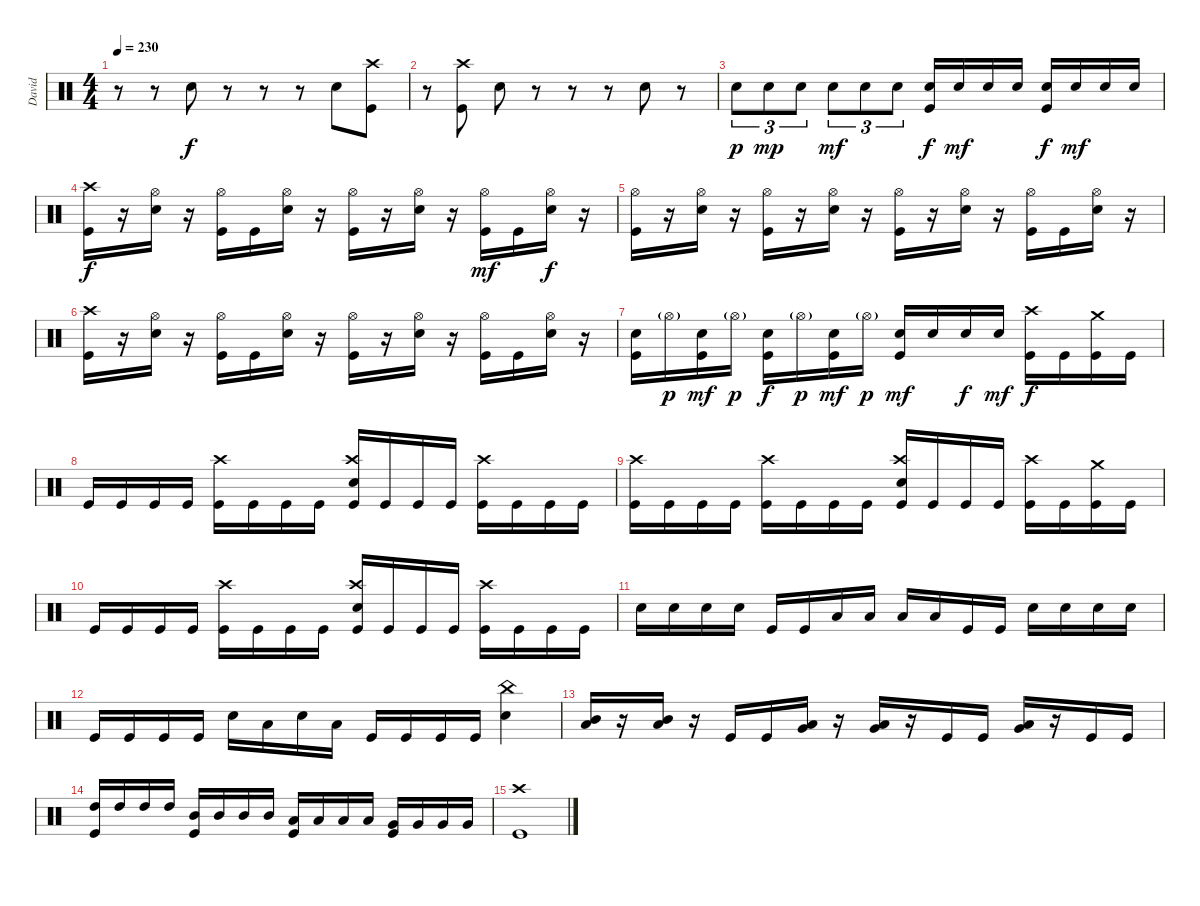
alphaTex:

\track ("David" "David") {instrument percussion}
\staff {score}
\articulation defaults
\ts (4 4)
\tempo 230
\clef neutral
\ks c
r.8{dy f} r.8 "Electric Snare (hit)".8 r.8 r.8 r.8 "Electric Snare (hit)".8 ("Crash high (hit)" "Kick (hit)").8 |
r.8 ("Crash high (hit)" "Kick (hit)").8 "Electric Snare (hit)".8 r.8 r.8 r.8 "Electric Snare (hit)".8 r.8 |
"Electric Snare (hit)".8{tu (3 2) dy p} "Electric Snare (hit)".8{tu (3 2) dy mp} "Electric Snare (hit)".8{tu (3 2)} "Electric Snare (hit)".8{tu (3 2) dy mf} "Electric Snare (hit)".8{tu (3 2)} "Electric Snare (hit)".8{tu (3 2)} ("Electric Snare (hit)" "Kick (hit)").16{dy f} "Electric Snare (hit)".16{dy mf} "Electric Snare (hit)".16 "Electric Snare (hit)".16 ("Electric Snare (hit)" "Kick (hit)").16{dy f} "Electric Snare (hit)".16{dy mf} "Electric Snare (hit)".16 "Electric Snare (hit)".16 |
("Crash high (hit)" "Kick (hit)").16{dy f} r.16 ("Hi-Hat (open)" "Electric Snare (hit)").16 r.16 ("Hi-Hat (open)" "Kick (hit)").16 "Kick (hit)".16 ("Hi-Hat (open)" "Electric Snare (hit)").16 r.16 ("Hi-Hat (open)" "Kick (hit)").16 r.16 ("Hi-Hat (open)" "Electric Snare (hit)").16 r.16 ("Hi-Hat (open)" "Kick (hit)").16{dy mf} "Kick (hit)".16 ("Hi-Hat (open)" "Electric Snare (hit)").16{dy f} r.16 |
("Hi-Hat (open)" "Kick (hit)").16 r.16 ("Hi-Hat (open)" "Electric Snare (hit)").16 r.16 ("Hi-Hat (open)" "Kick (hit)").16 r.16 ("Hi-Hat (open)" "Electric Snare (hit)").16 r.16 ("Hi-Hat (open)" "Kick (hit)").16 r.16 ("Hi-Hat (open)" "Electric Snare (hit)").16 r.16 ("Hi-Hat (open)" "Kick (hit)").16 "Kick (hit)".16 ("Hi-Hat (open)" "Electric Snare (hit)").16 r.16 |
("Crash high (hit)" "Kick (hit)").16 r.16 ("Hi-Hat (open)" "Electric Snare (hit)").16 r.16 ("Hi-Hat (open)" "Kick (hit)").16 "Kick (hit)".16 ("Hi-Hat (open)" "Electric Snare (hit)").16 r.16 ("Hi-Hat (open)" "Kick (hit)").16 r.16 ("Hi-Hat (open)" "Electric Snare (hit)").16 r.16 ("Hi-Hat (open)" "Kick (hit)").16 "Kick (hit)".16 ("Hi-Hat (open)" "Electric Snare (hit)").16 r.16 |
("Electric Snare (hit)" "Kick (hit)").16 "Hi-Hat (open)"{g}.16{dy p} ("Electric Snare (hit)" "Kick (hit)").16{dy mf} "Hi-Hat (open)"{g}.16{dy p} ("Electric Snare (hit)" "Kick (hit)").16{dy f} "Hi-Hat (open)"{g}.16{dy p} ("Electric Snare (hit)" "Kick (hit)").16{dy mf} "Hi-Hat (open)"{g}.16{dy p} ("Electric Snare (hit)" "Kick (hit)").16{dy mf} "Electric Snare (hit)".16 "Electric Snare (hit)".16{dy f} "Electric Snare (hit)".16{dy mf} ("Crash high (hit)" "Kick (hit)").16{dy f} "Kick (hit)".16 ("Crash medium (hit)" "Kick (hit)").16 "Kick (hit)".16 |
"Kick (hit)".16 "Kick (hit)".16 "Kick (hit)".16 "Kick (hit)".16 ("Crash high (hit)" "Kick (hit)").16 "Kick (hit)".16 "Kick (hit)".16 "Kick (hit)".16 ("Crash high (hit)" "Electric Snare (hit)" "Kick (hit)").16 "Kick (hit)".16 "Kick (hit)".16 "Kick (hit)".16 ("Crash high (hit)" "Kick (hit)").16 "Kick (hit)".16 "Kick (hit)".16 "Kick (hit)".16 |
("Crash high (hit)" "Kick (hit)").16 "Kick (hit)".16 "Kick (hit)".16 "Kick (hit)".16 ("Crash high (hit)" "Kick (hit)").16 "Kick (hit)".16 "Kick (hit)".16 "Kick (hit)".16 ("Crash high (hit)" "Electric Snare (hit)" "Kick (hit)").16 "Kick (hit)".16 "Kick (hit)".16 "Kick (hit)".16 ("Crash high (hit)" "Kick (hit)").16 "Kick (hit)".16 ("Crash medium (hit)" "Kick (hit)").16 "Kick (hit)".16 |
"Kick (hit)".16 "Kick (hit)".16 "Kick (hit)".16 "Kick (hit)".16 ("Crash high (hit)" "Kick (hit)").16 "Kick (hit)".16 "Kick (hit)".16 "Kick (hit)".16 ("Crash high (hit)" "Electric Snare (hit)" "Kick (hit)").16 "Kick (hit)".16 "Kick (hit)".16 "Kick (hit)".16 ("Crash high (hit)" "Kick (hit)").16 "Kick (hit)".16 "Kick (hit)".16 "Kick (hit)".16 |
"Electric Snare (hit)".16 "Electric Snare (hit)".16 "Electric Snare (hit)".16 "Electric Snare (hit)".16 "Kick (hit)".16 "Kick (hit)".16 "Low Tom (hit)".16 "Low Tom (hit)".16 "Low Tom (hit)".16 "Low Tom (hit)".16 "Kick (hit)".16 "Kick (hit)".16 "Electric Snare (hit)".16 "Electric Snare (hit)".16 "Electric Snare (hit)".16 "Electric Snare (hit)".16 |
"Kick (hit)".16 "Kick (hit)".16 "Kick (hit)".16 "Kick (hit)".16 "Electric Snare (hit)".16 "Low Tom (hit)".16 "Electric Snare (hit)".16 "Low Tom (hit)".16 "Kick (hit)".16 "Kick (hit)".16 "Kick (hit)".16 "Kick (hit)".16 ("China (hit)" "Electric Snare (hit)").4 |
("Mid Tom (hit)" "Low Tom (hit)").16 r.16 ("Mid Tom (hit)" "Low Tom (hit)").16 r.16 "Kick (hit)".16 "Kick (hit)".16 ("Low Tom (hit)" "Very Low Tom (hit)").16 r.16 ("Low Tom (hit)" "Very Low Tom (hit)").16 r.16 "Kick (hit)".16 "Kick (hit)".16 ("Very Low Tom (hit)" "Low Floor Tom (hit)").16 r.16 "Kick (hit)".16 "Kick (hit)".16 |
("High Tom (hit)" "Kick (hit)").16 "High Tom (hit)".16 "High Tom (hit)".16 "High Tom (hit)".16 ("Mid Tom (hit)" "Kick (hit)").16 "Mid Tom (hit)".16 "Mid Tom (hit)".16 "Mid Tom (hit)".16 ("Low Tom (hit)" "Kick (hit)").16 "Low Tom (hit)".16 "Low Tom (hit)".16 "Low Tom (hit)".16 ("Very Low Tom (hit)" "Kick (hit)").16 "Very Low Tom (hit)".16 "Very Low Tom (hit)".16 "Very Low Tom (hit)".16 |
("Crash high (hit)" "Kick (hit)").1
